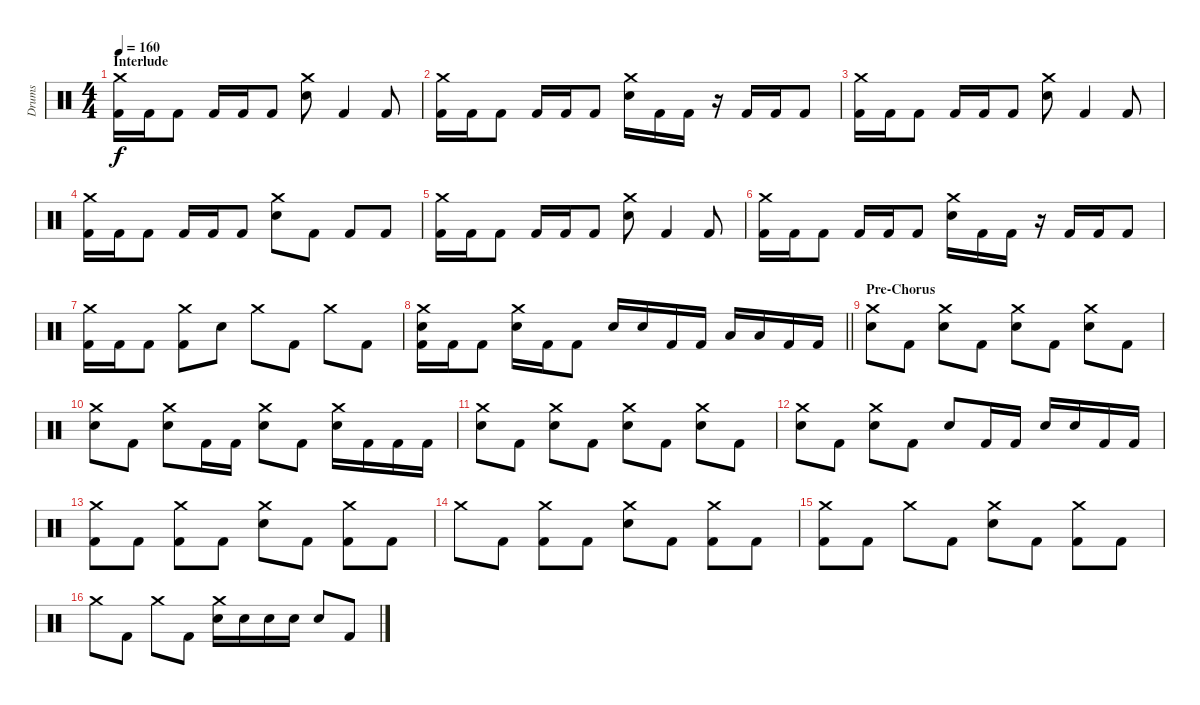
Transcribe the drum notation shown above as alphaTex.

\track ("Drums" "Drums") {instrument percussion}
\staff {score}
\articulation defaults
\ts (4 4)
\section ("" "Interlude")
\tempo 160
\clef neutral
\ks c
("Crash medium (hit)" "Kick (hit) 2").16{dy f} "Kick (hit) 2".16 "Kick (hit) 2".8 "Kick (hit) 2".16 "Kick (hit) 2".16 "Kick (hit) 2".8 ("Crash medium (hit)" "Snare (hit) 2").8 "Kick (hit) 2".4 "Kick (hit) 2".8 |
("Crash medium (hit)" "Kick (hit) 2").16 "Kick (hit) 2".16 "Kick (hit) 2".8 "Kick (hit) 2".16 "Kick (hit) 2".16 "Kick (hit) 2".8 ("Crash medium (hit)" "Snare (hit) 2").16 "Kick (hit) 2".16 "Kick (hit) 2".16 r.16 "Kick (hit) 2".16 "Kick (hit) 2".16 "Kick (hit) 2".8 |
("Crash medium (hit)" "Kick (hit) 2").16 "Kick (hit) 2".16 "Kick (hit) 2".8 "Kick (hit) 2".16 "Kick (hit) 2".16 "Kick (hit) 2".8 ("Crash medium (hit)" "Snare (hit) 2").8 "Kick (hit) 2".4 "Kick (hit) 2".8 |
("Crash medium (hit)" "Kick (hit) 2").16 "Kick (hit) 2".16 "Kick (hit) 2".8 "Kick (hit) 2".16 "Kick (hit) 2".16 "Kick (hit) 2".8 ("Crash medium (hit)" "Snare (hit) 2").8 "Kick (hit) 2".8 "Kick (hit) 2".8 "Kick (hit) 2".8 |
("Crash medium (hit)" "Kick (hit) 2").16 "Kick (hit) 2".16 "Kick (hit) 2".8 "Kick (hit) 2".16 "Kick (hit) 2".16 "Kick (hit) 2".8 ("Crash medium (hit)" "Snare (hit) 2").8 "Kick (hit) 2".4 "Kick (hit) 2".8 |
("Crash medium (hit)" "Kick (hit) 2").16 "Kick (hit) 2".16 "Kick (hit) 2".8 "Kick (hit) 2".16 "Kick (hit) 2".16 "Kick (hit) 2".8 ("Crash medium (hit)" "Snare (hit) 2").16 "Kick (hit) 2".16 "Kick (hit) 2".16 r.16 "Kick (hit) 2".16 "Kick (hit) 2".16 "Kick (hit) 2".8 |
("Crash medium (hit)" "Kick (hit) 2").16 "Kick (hit) 2".16 "Kick (hit) 2".8 ("Crash medium (hit)" "Kick (hit) 2").8 "Snare (hit) 2".8 "Crash medium (hit)".8 "Kick (hit) 2".8 "Crash medium (hit)".8 "Kick (hit) 2".8 |
\barLineRight lightlight
("Crash medium (hit)" "Snare (hit) 2" "Kick (hit) 2").16 "Kick (hit) 2".16 "Kick (hit) 2".8 ("Crash medium (hit)" "Snare (hit) 2").16 "Kick (hit) 2".16 "Kick (hit) 2".8 "Snare (hit) 2".16 "Snare (hit) 2".16 "Kick (hit) 2".16 "Kick (hit) 2".16 "Low Floor Tom (hit)".16 "Low Floor Tom (hit)".16 "Kick (hit) 2".16 "Kick (hit) 2".16 |
\section ("" "Pre-Chorus")
("Crash medium (hit)" "Snare (hit) 2").8 "Kick (hit) 2".8 ("Crash medium (hit)" "Snare (hit) 2").8 "Kick (hit) 2".8 ("Crash medium (hit)" "Snare (hit) 2").8 "Kick (hit) 2".8 ("Crash medium (hit)" "Snare (hit) 2").8 "Kick (hit) 2".8 |
("Crash medium (hit)" "Snare (hit) 2").8 "Kick (hit) 2".8 ("Crash medium (hit)" "Snare (hit) 2").8 "Kick (hit) 2".16 "Kick (hit) 2".16 ("Crash medium (hit)" "Snare (hit) 2").8 "Kick (hit) 2".8 ("Crash medium (hit)" "Snare (hit) 2").16 "Kick (hit) 2".16 "Kick (hit) 2".16 "Kick (hit) 2".16 |
("Crash medium (hit)" "Snare (hit) 2").8 "Kick (hit) 2".8 ("Crash medium (hit)" "Snare (hit) 2").8 "Kick (hit) 2".8 ("Crash medium (hit)" "Snare (hit) 2").8 "Kick (hit) 2".8 ("Crash medium (hit)" "Snare (hit) 2").8 "Kick (hit) 2".8 |
("Crash medium (hit)" "Snare (hit) 2").8 "Kick (hit) 2".8 ("Crash medium (hit)" "Snare (hit) 2").8 "Kick (hit) 2".8 "Snare (hit) 2".8 "Kick (hit) 2".16 "Kick (hit) 2".16 "Snare (hit) 2".16 "Snare (hit) 2".16 "Kick (hit) 2".16 "Kick (hit) 2".16 |
("Crash medium (hit)" "Kick (hit) 2").8 "Kick (hit) 2".8 ("Crash medium (hit)" "Kick (hit) 2").8 "Kick (hit) 2".8 ("Crash medium (hit)" "Snare (hit) 2").8 "Kick (hit) 2".8 ("Crash medium (hit)" "Kick (hit) 2").8 "Kick (hit) 2".8 |
"Crash medium (hit)".8 "Kick (hit) 2".8 ("Crash medium (hit)" "Kick (hit) 2").8 "Kick (hit) 2".8 ("Crash medium (hit)" "Snare (hit) 2").8 "Kick (hit) 2".8 ("Crash medium (hit)" "Kick (hit) 2").8 "Kick (hit) 2".8 |
("Crash medium (hit)" "Kick (hit) 2").8 "Kick (hit) 2".8 "Crash medium (hit)".8 "Kick (hit) 2".8 ("Crash medium (hit)" "Snare (hit) 2").8 "Kick (hit) 2".8 ("Crash medium (hit)" "Kick (hit) 2").8 "Kick (hit) 2".8 |
"Crash medium (hit)".8 "Kick (hit) 2".8 "Crash medium (hit)".8 "Kick (hit) 2".8 ("Crash medium (hit)" "Snare (hit) 2").16 "Snare (hit) 2".16 "Snare (hit) 2".16 "Snare (hit) 2".16 "Snare (hit) 2".8 "Kick (hit) 2".8
